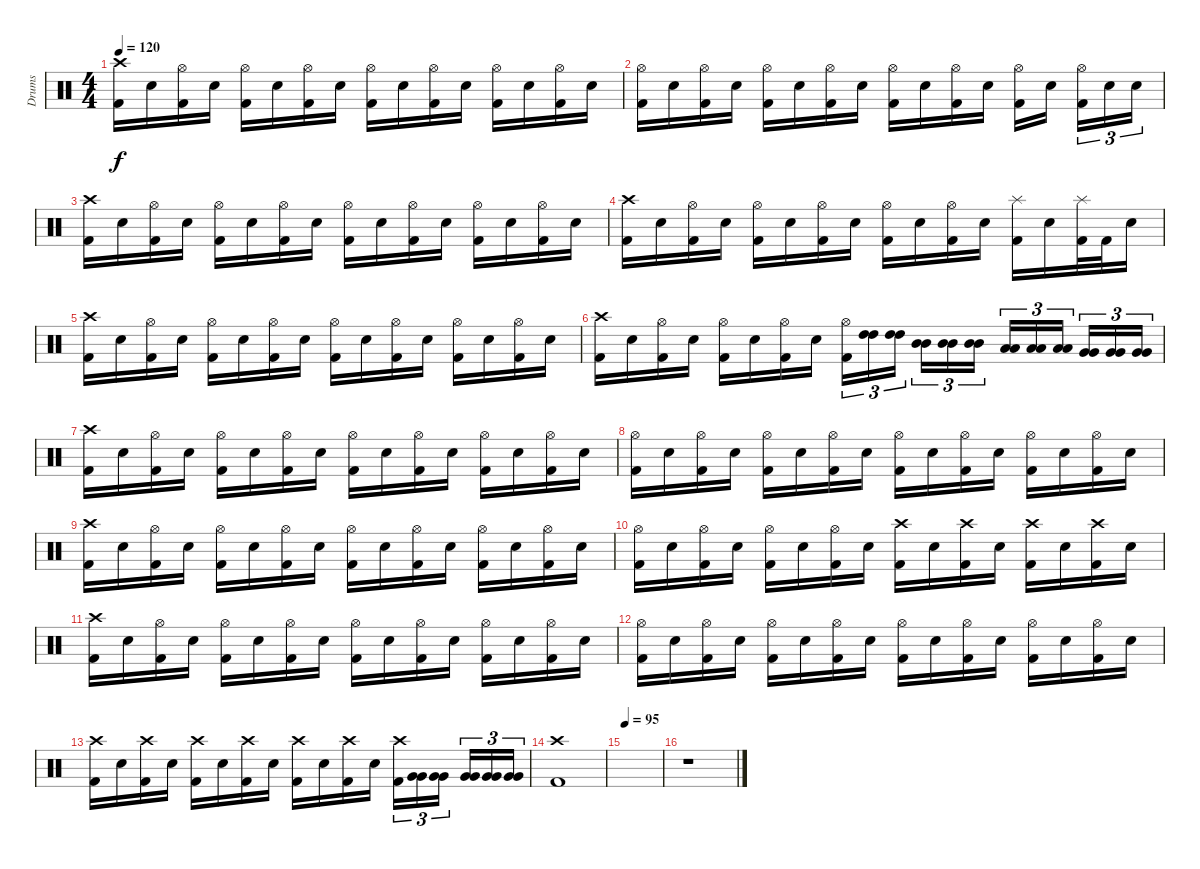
\track ("Drums" "Drums") {instrument percussion}
\staff {score}
\articulation defaults
\ts (4 4)
\tempo 120
\clef neutral
\ks c
("Crash high (hit)" "Kick (hit) 2").16{dy f} "Electric Snare (hit)".16 ("Hi-Hat (open)" "Kick (hit) 2").16 "Electric Snare (hit)".16 ("Hi-Hat (open)" "Kick (hit) 2").16 "Electric Snare (hit)".16 ("Hi-Hat (open)" "Kick (hit) 2").16 "Electric Snare (hit)".16 ("Hi-Hat (open)" "Kick (hit) 2").16 "Electric Snare (hit)".16 ("Hi-Hat (open)" "Kick (hit) 2").16 "Electric Snare (hit)".16 ("Hi-Hat (open)" "Kick (hit) 2").16 "Electric Snare (hit)".16 ("Hi-Hat (open)" "Kick (hit) 2").16 "Electric Snare (hit)".16 |
("Hi-Hat (open)" "Kick (hit) 2").16 "Electric Snare (hit)".16 ("Hi-Hat (open)" "Kick (hit) 2").16 "Electric Snare (hit)".16 ("Hi-Hat (open)" "Kick (hit) 2").16 "Electric Snare (hit)".16 ("Hi-Hat (open)" "Kick (hit) 2").16 "Electric Snare (hit)".16 ("Hi-Hat (open)" "Kick (hit) 2").16 "Electric Snare (hit)".16 ("Hi-Hat (open)" "Kick (hit) 2").16 "Electric Snare (hit)".16 ("Hi-Hat (open)" "Kick (hit) 2").16 "Electric Snare (hit)".16 ("Hi-Hat (open)" "Kick (hit) 2").16{tu (3 2)} "Electric Snare (hit)".16{tu (3 2)} "Electric Snare (hit)".16{tu (3 2)} |
("Crash high (hit)" "Kick (hit) 2").16 "Electric Snare (hit)".16 ("Hi-Hat (open)" "Kick (hit) 2").16 "Electric Snare (hit)".16 ("Hi-Hat (open)" "Kick (hit) 2").16 "Electric Snare (hit)".16 ("Hi-Hat (open)" "Kick (hit) 2").16 "Electric Snare (hit)".16 ("Hi-Hat (open)" "Kick (hit) 2").16 "Electric Snare (hit)".16 ("Hi-Hat (open)" "Kick (hit) 2").16 "Electric Snare (hit)".16 ("Hi-Hat (open)" "Kick (hit) 2").16 "Electric Snare (hit)".16 ("Hi-Hat (open)" "Kick (hit) 2").16 "Electric Snare (hit)".16 |
("Crash high (hit)" "Kick (hit) 2").16 "Electric Snare (hit)".16 ("Hi-Hat (open)" "Kick (hit) 2").16 "Electric Snare (hit)".16 ("Hi-Hat (open)" "Kick (hit) 2").16 "Electric Snare (hit)".16 ("Hi-Hat (open)" "Kick (hit) 2").16 "Electric Snare (hit)".16 ("Hi-Hat (open)" "Kick (hit) 2").16 "Electric Snare (hit)".16 ("Hi-Hat (open)" "Kick (hit) 2").16 "Electric Snare (hit)".16 ("Splash (hit)" "Kick (hit) 2").16 "Electric Snare (hit)".16 ("Splash (hit)" "Kick (hit) 2").32 "Kick (hit) 2".32 "Electric Snare (hit)".16 |
("Crash high (hit)" "Kick (hit) 2").16 "Electric Snare (hit)".16 ("Hi-Hat (open)" "Kick (hit) 2").16 "Electric Snare (hit)".16 ("Hi-Hat (open)" "Kick (hit) 2").16 "Electric Snare (hit)".16 ("Hi-Hat (open)" "Kick (hit) 2").16 "Electric Snare (hit)".16 ("Hi-Hat (open)" "Kick (hit) 2").16 "Electric Snare (hit)".16 ("Hi-Hat (open)" "Kick (hit) 2").16 "Electric Snare (hit)".16 ("Hi-Hat (open)" "Kick (hit) 2").16 "Electric Snare (hit)".16 ("Hi-Hat (open)" "Kick (hit) 2").16 "Electric Snare (hit)".16 |
("Crash high (hit)" "Kick (hit) 2").16 "Electric Snare (hit)".16 ("Hi-Hat (open)" "Kick (hit) 2").16 "Electric Snare (hit)".16 ("Hi-Hat (open)" "Kick (hit) 2").16 "Electric Snare (hit)".16 ("Hi-Hat (open)" "Kick (hit) 2").16 "Electric Snare (hit)".16 ("Hi-Hat (open)" "Kick (hit) 2").16{tu (3 2)} ("High Tom (hit)" "High Tom (hit)").16{tu (3 2) balance 5} ("High Tom (hit)" "High Tom (hit)").16{tu (3 2)} ("Mid Tom (hit)" "Mid Tom (hit)").16{tu (3 2) balance 7} ("Mid Tom (hit)" "Mid Tom (hit)").16{tu (3 2)} ("Mid Tom (hit)" "Mid Tom (hit)").16{tu (3 2)} ("Low Tom (hit)" "Low Tom (hit)").16{tu (3 2) balance 9} ("Low Tom (hit)" "Low Tom (hit)").16{tu (3 2)} ("Low Tom (hit)" "Low Tom (hit)").16{tu (3 2)} ("Very Low Tom (hit)" "Very Low Tom (hit)").16{tu (3 2) balance 11} ("Very Low Tom (hit)" "Very Low Tom (hit)").16{tu (3 2)} ("Very Low Tom (hit)" "Very Low Tom (hit)").16{tu (3 2)} |
("Crash high (hit)" "Kick (hit) 2").16{balance 8} "Electric Snare (hit)".16 ("Hi-Hat (open)" "Kick (hit) 2").16 "Electric Snare (hit)".16 ("Hi-Hat (open)" "Kick (hit) 2").16 "Electric Snare (hit)".16 ("Hi-Hat (open)" "Kick (hit) 2").16 "Electric Snare (hit)".16 ("Hi-Hat (open)" "Kick (hit) 2").16 "Electric Snare (hit)".16 ("Hi-Hat (open)" "Kick (hit) 2").16 "Electric Snare (hit)".16 ("Hi-Hat (open)" "Kick (hit) 2").16 "Electric Snare (hit)".16 ("Hi-Hat (open)" "Kick (hit) 2").16 "Electric Snare (hit)".16 |
("Hi-Hat (open)" "Kick (hit) 2").16 "Electric Snare (hit)".16 ("Hi-Hat (open)" "Kick (hit) 2").16 "Electric Snare (hit)".16 ("Hi-Hat (open)" "Kick (hit) 2").16 "Electric Snare (hit)".16 ("Hi-Hat (open)" "Kick (hit) 2").16 "Electric Snare (hit)".16 ("Hi-Hat (open)" "Kick (hit) 2").16 "Electric Snare (hit)".16 ("Hi-Hat (open)" "Kick (hit) 2").16 "Electric Snare (hit)".16 ("Hi-Hat (open)" "Kick (hit) 2").16 "Electric Snare (hit)".16 ("Hi-Hat (open)" "Kick (hit) 2").16 "Electric Snare (hit)".16 |
("Crash high (hit)" "Kick (hit) 2").16 "Electric Snare (hit)".16 ("Hi-Hat (open)" "Kick (hit) 2").16 "Electric Snare (hit)".16 ("Hi-Hat (open)" "Kick (hit) 2").16 "Electric Snare (hit)".16 ("Hi-Hat (open)" "Kick (hit) 2").16 "Electric Snare (hit)".16 ("Hi-Hat (open)" "Kick (hit) 2").16 "Electric Snare (hit)".16 ("Hi-Hat (open)" "Kick (hit) 2").16 "Electric Snare (hit)".16 ("Hi-Hat (open)" "Kick (hit) 2").16 "Electric Snare (hit)".16 ("Hi-Hat (open)" "Kick (hit) 2").16 "Electric Snare (hit)".16 |
("Hi-Hat (open)" "Kick (hit) 2").16 "Electric Snare (hit)".16 ("Hi-Hat (open)" "Kick (hit) 2").16 "Electric Snare (hit)".16 ("Hi-Hat (open)" "Kick (hit) 2").16 "Electric Snare (hit)".16 ("Hi-Hat (open)" "Kick (hit) 2").16 "Electric Snare (hit)".16 ("Crash high (hit)" "Kick (hit) 2").16 "Electric Snare (hit)".16 ("Crash high (hit)" "Kick (hit) 2").16 "Electric Snare (hit)".16 ("Crash high (hit)" "Kick (hit) 2").16 "Electric Snare (hit)".16 ("Crash high (hit)" "Kick (hit) 2").16 "Electric Snare (hit)".16 |
("Crash high (hit)" "Kick (hit) 2").16 "Electric Snare (hit)".16 ("Hi-Hat (open)" "Kick (hit) 2").16 "Electric Snare (hit)".16 ("Hi-Hat (open)" "Kick (hit) 2").16 "Electric Snare (hit)".16 ("Hi-Hat (open)" "Kick (hit) 2").16 "Electric Snare (hit)".16 ("Hi-Hat (open)" "Kick (hit) 2").16 "Electric Snare (hit)".16 ("Hi-Hat (open)" "Kick (hit) 2").16 "Electric Snare (hit)".16 ("Hi-Hat (open)" "Kick (hit) 2").16 "Electric Snare (hit)".16 ("Hi-Hat (open)" "Kick (hit) 2").16 "Electric Snare (hit)".16 |
("Hi-Hat (open)" "Kick (hit) 2").16 "Electric Snare (hit)".16 ("Hi-Hat (open)" "Kick (hit) 2").16 "Electric Snare (hit)".16 ("Hi-Hat (open)" "Kick (hit) 2").16 "Electric Snare (hit)".16 ("Hi-Hat (open)" "Kick (hit) 2").16 "Electric Snare (hit)".16 ("Hi-Hat (open)" "Kick (hit) 2").16 "Electric Snare (hit)".16 ("Hi-Hat (open)" "Kick (hit) 2").16 "Electric Snare (hit)".16 ("Hi-Hat (open)" "Kick (hit) 2").16 "Electric Snare (hit)".16 ("Hi-Hat (open)" "Kick (hit) 2").16 "Electric Snare (hit)".16 |
("Crash high (hit)" "Kick (hit) 2").16 "Electric Snare (hit)".16 ("Crash high (hit)" "Kick (hit) 2").16 "Electric Snare (hit)".16 ("Crash high (hit)" "Kick (hit) 2").16 "Electric Snare (hit)".16 ("Crash high (hit)" "Kick (hit) 2").16 "Electric Snare (hit)".16 ("Crash high (hit)" "Kick (hit) 2").16 "Electric Snare (hit)".16 ("Crash high (hit)" "Kick (hit) 2").16 "Electric Snare (hit)".16 ("Crash high (hit)" "Kick (hit) 2").16{tu (3 2)} ("Very Low Tom (hit)" "Very Low Tom (hit)").16{tu (3 2) balance 13} ("Very Low Tom (hit)" "Very Low Tom (hit)").16{tu (3 2)} ("Very Low Tom (hit)" "Very Low Tom (hit)").16{tu (3 2)} ("Very Low Tom (hit)" "Very Low Tom (hit)").16{tu (3 2)} ("Very Low Tom (hit)" "Very Low Tom (hit)").16{tu (3 2)} |
("Crash high (hit)" "Kick (hit) 2").1{balance 8} |
\tempo 95
|
r.1
